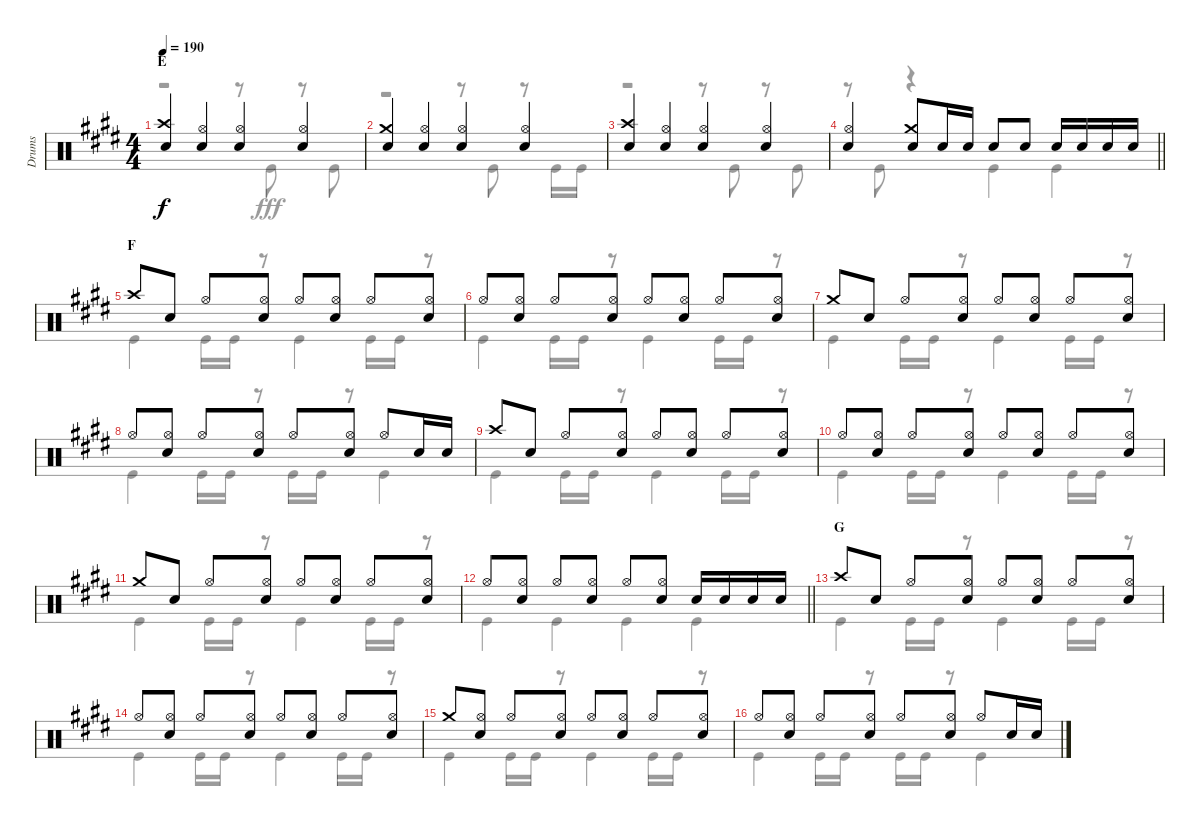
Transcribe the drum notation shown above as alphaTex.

\track ("Drums" "Drums") {instrument percussion}
\staff {score}
\articulation defaults
\voice
\ts (4 4)
\section ("" "E")
\tempo 190
\clef neutral
\ks e
("Crash high (hit)" "Snare (hit) 2").4{dy f} ("Hi-Hat (open)" "Snare (hit) 2").4 ("Hi-Hat (open)" "Snare (hit) 2").4 ("Hi-Hat (open)" "Snare (hit) 2").4 |
("Crash medium (hit)" "Snare (hit) 2").4 ("Hi-Hat (open)" "Snare (hit) 2").4 ("Hi-Hat (open)" "Snare (hit) 2").4 ("Hi-Hat (open)" "Snare (hit) 2").4 |
("Crash high (hit)" "Snare (hit) 2").4 ("Hi-Hat (open)" "Snare (hit) 2").4 ("Hi-Hat (open)" "Snare (hit) 2").4 ("Hi-Hat (open)" "Snare (hit) 2").4 |
\barLineRight lightlight
("Hi-Hat (open)" "Snare (hit) 2").4 ("Crash medium (hit)" "Snare (hit) 2").8 "Snare (hit) 2".16 "Snare (hit) 2".16 "Snare (hit) 2".8 "Snare (hit) 2".8 "Snare (hit) 2".16 "Snare (hit) 2".16 "Snare (hit) 2".16 "Snare (hit) 2".16 |
\section ("" "F")
"Crash high (hit)".8 "Snare (hit) 2".8 "Hi-Hat (open)".8 ("Hi-Hat (open)" "Snare (hit) 2").8 "Hi-Hat (open)".8 ("Hi-Hat (open)" "Snare (hit) 2").8 "Hi-Hat (open)".8 ("Hi-Hat (open)" "Snare (hit) 2").8 |
"Hi-Hat (open)".8 ("Hi-Hat (open)" "Snare (hit) 2").8 "Hi-Hat (open)".8 ("Hi-Hat (open)" "Snare (hit) 2").8 "Hi-Hat (open)".8 ("Hi-Hat (open)" "Snare (hit) 2").8 "Hi-Hat (open)".8 ("Hi-Hat (open)" "Snare (hit) 2").8 |
"Crash medium (hit)".8 "Snare (hit) 2".8 "Hi-Hat (open)".8 ("Hi-Hat (open)" "Snare (hit) 2").8 "Hi-Hat (open)".8 ("Hi-Hat (open)" "Snare (hit) 2").8 "Hi-Hat (open)".8 ("Hi-Hat (open)" "Snare (hit) 2").8 |
"Hi-Hat (open)".8 ("Hi-Hat (open)" "Snare (hit) 2").8 "Hi-Hat (open)".8 ("Hi-Hat (open)" "Snare (hit) 2").8 "Hi-Hat (open)".8 ("Hi-Hat (open)" "Snare (hit) 2").8 "Hi-Hat (open)".8 "Snare (hit) 2".16 "Snare (hit) 2".16 |
"Crash high (hit)".8 "Snare (hit) 2".8 "Hi-Hat (open)".8 ("Hi-Hat (open)" "Snare (hit) 2").8 "Hi-Hat (open)".8 ("Hi-Hat (open)" "Snare (hit) 2").8 "Hi-Hat (open)".8 ("Hi-Hat (open)" "Snare (hit) 2").8 |
"Hi-Hat (open)".8 ("Hi-Hat (open)" "Snare (hit) 2").8 "Hi-Hat (open)".8 ("Hi-Hat (open)" "Snare (hit) 2").8 "Hi-Hat (open)".8 ("Hi-Hat (open)" "Snare (hit) 2").8 "Hi-Hat (open)".8 ("Hi-Hat (open)" "Snare (hit) 2").8 |
"Crash medium (hit)".8 "Snare (hit) 2".8 "Hi-Hat (open)".8 ("Hi-Hat (open)" "Snare (hit) 2").8 "Hi-Hat (open)".8 ("Hi-Hat (open)" "Snare (hit) 2").8 "Hi-Hat (open)".8 ("Hi-Hat (open)" "Snare (hit) 2").8 |
\barLineRight lightlight "Hi-Hat (open)".8
("Hi-Hat (open)" "Snare (hit) 2").8 "Hi-Hat (open)".8 ("Hi-Hat (open)" "Snare (hit) 2").8 "Hi-Hat (open)".8 ("Hi-Hat (open)" "Snare (hit) 2").8 "Snare (hit) 2".16 "Snare (hit) 2".16 "Snare (hit) 2".16 "Snare (hit) 2".16 |
\section ("" "G")
"Crash high (hit)".8 "Snare (hit) 2".8 "Hi-Hat (open)".8 ("Hi-Hat (open)" "Snare (hit) 2").8 "Hi-Hat (open)".8 ("Hi-Hat (open)" "Snare (hit) 2").8 "Hi-Hat (open)".8 ("Hi-Hat (open)" "Snare (hit) 2").8 |
"Hi-Hat (open)".8 ("Hi-Hat (open)" "Snare (hit) 2").8 "Hi-Hat (open)".8 ("Hi-Hat (open)" "Snare (hit) 2").8 "Hi-Hat (open)".8 ("Hi-Hat (open)" "Snare (hit) 2").8 "Hi-Hat (open)".8 ("Hi-Hat (open)" "Snare (hit) 2").8 |
"Crash medium (hit)".8 ("Hi-Hat (open)" "Snare (hit) 2").8 "Hi-Hat (open)".8 ("Hi-Hat (open)" "Snare (hit) 2").8 "Hi-Hat (open)".8 ("Hi-Hat (open)" "Snare (hit) 2").8 "Hi-Hat (open)".8 ("Hi-Hat (open)" "Snare (hit) 2").8 |
"Hi-Hat (open)".8 ("Hi-Hat (open)" "Snare (hit) 2").8 "Hi-Hat (open)".8 ("Hi-Hat (open)" "Snare (hit) 2").8 "Hi-Hat (open)".8 ("Hi-Hat (open)" "Snare (hit) 2").8 "Hi-Hat (open)".8 "Snare (hit) 2".16 "Snare (hit) 2".16
\voice
\clef neutral
\ottava regular
\simile none
\ks e
r.2{dy fff} r.8 "Kick (hit)".8 r.8 "Kick (hit)".8 |
r.2 r.8 "Kick (hit)".8 r.8 "Kick (hit)".16 "Kick (hit)".16 |
r.2 r.8 "Kick (hit)".8 r.8 "Kick (hit)".8 |
\barLineRight lightlight
r.8 "Kick (hit)".8 r.4 "Kick (hit)".4 "Kick (hit)".4 |
"Kick (hit)".4 "Kick (hit)".16 "Kick (hit)".16 r.8 "Kick (hit)".4 "Kick (hit)".16 "Kick (hit)".16 r.8 |
"Kick (hit)".4 "Kick (hit)".16 "Kick (hit)".16 r.8 "Kick (hit)".4 "Kick (hit)".16 "Kick (hit)".16 r.8 |
"Kick (hit)".4 "Kick (hit)".16 "Kick (hit)".16 r.8 "Kick (hit)".4 "Kick (hit)".16 "Kick (hit)".16 r.8 |
"Kick (hit)".4 "Kick (hit)".16 "Kick (hit)".16 r.8 "Kick (hit)".16 "Kick (hit)".16 r.8 "Kick (hit)".4 |
"Kick (hit)".4 "Kick (hit)".16 "Kick (hit)".16 r.8 "Kick (hit)".4 "Kick (hit)".16 "Kick (hit)".16 r.8 |
"Kick (hit)".4 "Kick (hit)".16 "Kick (hit)".16 r.8 "Kick (hit)".4 "Kick (hit)".16 "Kick (hit)".16 r.8 |
"Kick (hit)".4 "Kick (hit)".16 "Kick (hit)".16 r.8 "Kick (hit)".4 "Kick (hit)".16 "Kick (hit)".16 r.8 |
\barLineRight lightlight "Kick (hit)".4 "Kick (hit)".4 "Kick (hit)".4 "Kick (hit)".4
|
"Kick (hit)".4 "Kick (hit)".16 "Kick (hit)".16 r.8 "Kick (hit)".4 "Kick (hit)".16 "Kick (hit)".16 r.8 |
"Kick (hit)".4 "Kick (hit)".16 "Kick (hit)".16 r.8 "Kick (hit)".4 "Kick (hit)".16 "Kick (hit)".16 r.8 |
"Kick (hit)".4 "Kick (hit)".16 "Kick (hit)".16 r.8 "Kick (hit)".4 "Kick (hit)".16 "Kick (hit)".16 r.8 |
"Kick (hit)".4 "Kick (hit)".16 "Kick (hit)".16 r.8 "Kick (hit)".16 "Kick (hit)".16 r.8 "Kick (hit)".4
